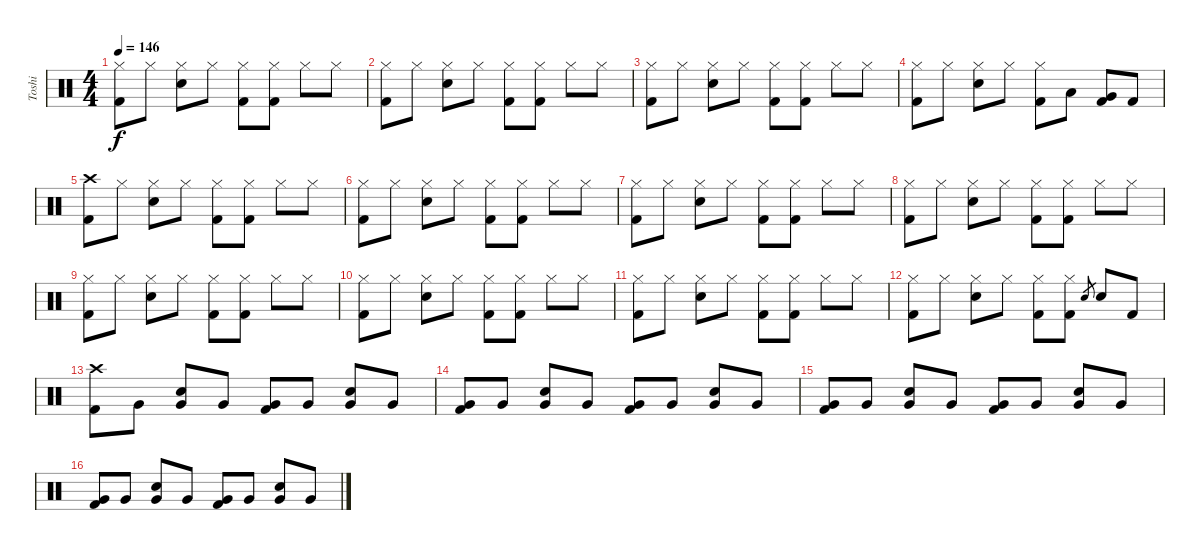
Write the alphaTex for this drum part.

\track ("Toshi" "Toshi") {instrument percussion}
\staff {score}
\articulation defaults
\ts (4 4)
\tempo 146
\clef neutral
\ks c
("Hi-Hat (closed)" "Kick (hit) 2").8{dy f} "Hi-Hat (closed)".8 ("Hi-Hat (closed)" "Electric Snare (hit)").8 "Hi-Hat (closed)".8 ("Hi-Hat (closed)" "Kick (hit) 2").8 ("Hi-Hat (closed)" "Kick (hit) 2").8 "Hi-Hat (closed)".8 "Hi-Hat (closed)".8 |
("Hi-Hat (closed)" "Kick (hit) 2").8 "Hi-Hat (closed)".8 ("Hi-Hat (closed)" "Electric Snare (hit)").8 "Hi-Hat (closed)".8 ("Hi-Hat (closed)" "Kick (hit) 2").8 ("Hi-Hat (closed)" "Kick (hit) 2").8 "Hi-Hat (closed)".8 "Hi-Hat (closed)".8 |
("Hi-Hat (closed)" "Kick (hit) 2").8 "Hi-Hat (closed)".8 ("Hi-Hat (closed)" "Electric Snare (hit)").8 "Hi-Hat (closed)".8 ("Hi-Hat (closed)" "Kick (hit) 2").8 ("Hi-Hat (closed)" "Kick (hit) 2").8 "Hi-Hat (closed)".8 "Hi-Hat (closed)".8 |
("Hi-Hat (closed)" "Kick (hit) 2").8 "Hi-Hat (closed)".8 ("Hi-Hat (closed)" "Electric Snare (hit)").8 "Hi-Hat (closed)".8 ("Hi-Hat (closed)" "Kick (hit) 2").8 "Low Tom (hit)".8 ("Very Low Tom (hit)" "Kick (hit) 2").8 "Kick (hit) 2".8 |
("Crash high (hit)" "Kick (hit) 2").8 "Hi-Hat (closed)".8 ("Hi-Hat (closed)" "Electric Snare (hit)").8 "Hi-Hat (closed)".8 ("Hi-Hat (closed)" "Kick (hit) 2").8 ("Hi-Hat (closed)" "Kick (hit) 2").8 "Hi-Hat (closed)".8 "Hi-Hat (closed)".8 |
("Hi-Hat (closed)" "Kick (hit) 2").8 "Hi-Hat (closed)".8 ("Hi-Hat (closed)" "Electric Snare (hit)").8 "Hi-Hat (closed)".8 ("Hi-Hat (closed)" "Kick (hit) 2").8 ("Hi-Hat (closed)" "Kick (hit) 2").8 "Hi-Hat (closed)".8 "Hi-Hat (closed)".8 |
("Hi-Hat (closed)" "Kick (hit) 2").8 "Hi-Hat (closed)".8 ("Hi-Hat (closed)" "Electric Snare (hit)").8 "Hi-Hat (closed)".8 ("Hi-Hat (closed)" "Kick (hit) 2").8 ("Hi-Hat (closed)" "Kick (hit) 2").8 "Hi-Hat (closed)".8 "Hi-Hat (closed)".8 |
("Hi-Hat (closed)" "Kick (hit) 2").8 "Hi-Hat (closed)".8 ("Hi-Hat (closed)" "Electric Snare (hit)").8 "Hi-Hat (closed)".8 ("Hi-Hat (closed)" "Kick (hit) 2").8 ("Hi-Hat (closed)" "Kick (hit) 2").8 "Hi-Hat (closed)".8 "Hi-Hat (closed)".8 |
("Hi-Hat (closed)" "Kick (hit) 2").8 "Hi-Hat (closed)".8 ("Hi-Hat (closed)" "Electric Snare (hit)").8 "Hi-Hat (closed)".8 ("Hi-Hat (closed)" "Kick (hit) 2").8 ("Hi-Hat (closed)" "Kick (hit) 2").8 "Hi-Hat (closed)".8 "Hi-Hat (closed)".8 |
("Hi-Hat (closed)" "Kick (hit) 2").8 "Hi-Hat (closed)".8 ("Hi-Hat (closed)" "Electric Snare (hit)").8 "Hi-Hat (closed)".8 ("Hi-Hat (closed)" "Kick (hit) 2").8 ("Hi-Hat (closed)" "Kick (hit) 2").8 "Hi-Hat (closed)".8 "Hi-Hat (closed)".8 |
("Hi-Hat (closed)" "Kick (hit) 2").8 "Hi-Hat (closed)".8 ("Hi-Hat (closed)" "Electric Snare (hit)").8 "Hi-Hat (closed)".8 ("Hi-Hat (closed)" "Kick (hit) 2").8 ("Hi-Hat (closed)" "Kick (hit) 2").8 "Hi-Hat (closed)".8 "Hi-Hat (closed)".8 |
("Hi-Hat (closed)" "Kick (hit) 2").8 "Hi-Hat (closed)".8 ("Hi-Hat (closed)" "Electric Snare (hit)").8 "Hi-Hat (closed)".8 ("Hi-Hat (closed)" "Kick (hit) 2").8 ("Hi-Hat (closed)" "Kick (hit) 2").8 "Electric Snare (hit)".8{gr} "Electric Snare (hit)".8 "Kick (hit) 2".8 |
("Crash high (hit)" "Kick (hit) 2").8 "Very Low Tom (hit)".8 ("Very Low Tom (hit)" "Electric Snare (hit)").8 "Very Low Tom (hit)".8 ("Very Low Tom (hit)" "Kick (hit) 2").8 "Very Low Tom (hit)".8 ("Very Low Tom (hit)" "Electric Snare (hit)").8 "Very Low Tom (hit)".8 |
("Very Low Tom (hit)" "Kick (hit) 2").8 "Very Low Tom (hit)".8 ("Very Low Tom (hit)" "Electric Snare (hit)").8 "Very Low Tom (hit)".8 ("Very Low Tom (hit)" "Kick (hit) 2").8 "Very Low Tom (hit)".8 ("Very Low Tom (hit)" "Electric Snare (hit)").8 "Very Low Tom (hit)".8 |
("Very Low Tom (hit)" "Kick (hit) 2").8 "Very Low Tom (hit)".8 ("Very Low Tom (hit)" "Electric Snare (hit)").8 "Very Low Tom (hit)".8 ("Very Low Tom (hit)" "Kick (hit) 2").8 "Very Low Tom (hit)".8 ("Very Low Tom (hit)" "Electric Snare (hit)").8 "Very Low Tom (hit)".8 |
("Very Low Tom (hit)" "Kick (hit) 2").8 "Very Low Tom (hit)".8 ("Very Low Tom (hit)" "Electric Snare (hit)").8 "Very Low Tom (hit)".8 ("Very Low Tom (hit)" "Kick (hit) 2").8 "Very Low Tom (hit)".8 ("Very Low Tom (hit)" "Electric Snare (hit)").8 "Very Low Tom (hit)".8
